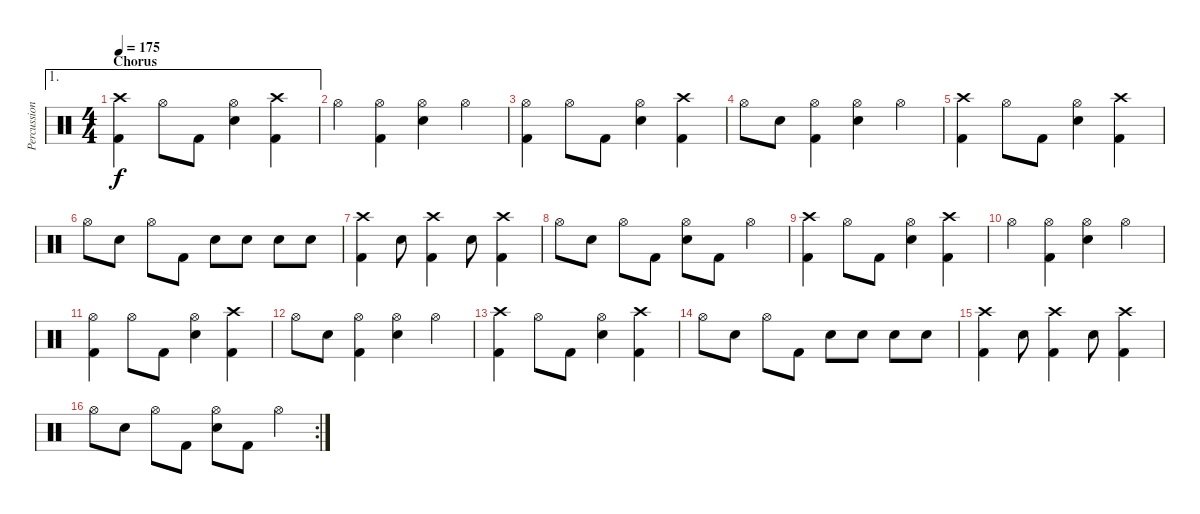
\track ("Percussion" "Percussion") {instrument percussion}
\staff {score}
\articulation defaults
\ae 1
\ts (4 4)
\section ("" "Chorus")
\tempo 175
\clef neutral
\ks c
("Crash high (hit)" "Kick (hit) 2").4{dy f} "Hi-Hat (open)".8 "Kick (hit) 2".8 ("Hi-Hat (open)" "Electric Snare (hit)").4 ("Crash high (hit)" "Kick (hit) 2").4 |
"Hi-Hat (open)".4 ("Hi-Hat (open)" "Kick (hit) 2").4 ("Hi-Hat (open)" "Electric Snare (hit)").4 "Hi-Hat (open)".4 |
("Hi-Hat (open)" "Kick (hit) 2").4 "Hi-Hat (open)".8 "Kick (hit) 2".8 ("Hi-Hat (open)" "Electric Snare (hit)").4 ("Crash high (hit)" "Kick (hit) 2").4 |
"Hi-Hat (open)".8 "Electric Snare (hit)".8 ("Hi-Hat (open)" "Kick (hit) 2").4 ("Hi-Hat (open)" "Electric Snare (hit)").4 "Hi-Hat (open)".4 |
("Crash high (hit)" "Kick (hit) 2").4 "Hi-Hat (open)".8 "Kick (hit) 2".8 ("Hi-Hat (open)" "Electric Snare (hit)").4 ("Crash high (hit)" "Kick (hit) 2").4 |
"Hi-Hat (open)".8 "Electric Snare (hit)".8 "Hi-Hat (open)".8 "Kick (hit) 2".8 "Electric Snare (hit)".8 "Electric Snare (hit)".8 "Electric Snare (hit)".8 "Electric Snare (hit)".8 |
("Crash high (hit)" "Kick (hit) 2").4 "Electric Snare (hit)".8 ("Crash high (hit)" "Kick (hit) 2").4 "Electric Snare (hit)".8 ("Crash high (hit)" "Kick (hit) 2").4 |
"Hi-Hat (open)".8 "Electric Snare (hit)".8 "Hi-Hat (open)".8 "Kick (hit) 2".8 ("Hi-Hat (open)" "Electric Snare (hit)").8 "Kick (hit) 2".8 "Hi-Hat (open)".4 |
("Crash high (hit)" "Kick (hit) 2").4 "Hi-Hat (open)".8 "Kick (hit) 2".8 ("Hi-Hat (open)" "Electric Snare (hit)").4 ("Crash high (hit)" "Kick (hit) 2").4 |
"Hi-Hat (open)".4 ("Hi-Hat (open)" "Kick (hit) 2").4 ("Hi-Hat (open)" "Electric Snare (hit)").4 "Hi-Hat (open)".4 |
("Hi-Hat (open)" "Kick (hit) 2").4 "Hi-Hat (open)".8 "Kick (hit) 2".8 ("Hi-Hat (open)" "Electric Snare (hit)").4 ("Crash high (hit)" "Kick (hit) 2").4 |
"Hi-Hat (open)".8 "Electric Snare (hit)".8 ("Hi-Hat (open)" "Kick (hit) 2").4 ("Hi-Hat (open)" "Electric Snare (hit)").4 "Hi-Hat (open)".4 |
("Crash high (hit)" "Kick (hit) 2").4 "Hi-Hat (open)".8 "Kick (hit) 2".8 ("Hi-Hat (open)" "Electric Snare (hit)").4 ("Crash high (hit)" "Kick (hit) 2").4 |
"Hi-Hat (open)".8 "Electric Snare (hit)".8 "Hi-Hat (open)".8 "Kick (hit) 2".8 "Electric Snare (hit)".8 "Electric Snare (hit)".8 "Electric Snare (hit)".8 "Electric Snare (hit)".8 |
("Crash high (hit)" "Kick (hit) 2").4 "Electric Snare (hit)".8 ("Crash high (hit)" "Kick (hit) 2").4 "Electric Snare (hit)".8 ("Crash high (hit)" "Kick (hit) 2").4 |
\rc 2 "Hi-Hat (open)".8 "Electric Snare (hit)".8 "Hi-Hat (open)".8 "Kick (hit) 2".8
("Hi-Hat (open)" "Electric Snare (hit)").8 "Kick (hit) 2".8 "Hi-Hat (open)".4
